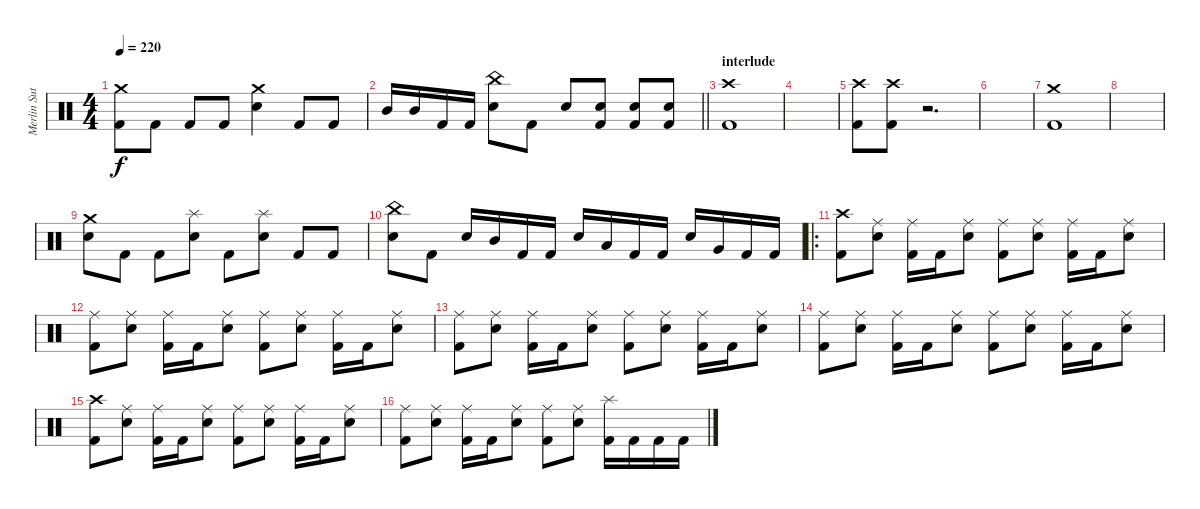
\track ("Merlin Sutter" "Merlin Sut") {instrument percussion}
\staff {score}
\articulation defaults
\ts (4 4)
\tempo 220
\clef neutral
\ks c
("Crash medium (hit)" "Kick (hit) 2").8{dy f} "Kick (hit) 2".8 "Kick (hit) 2".8 "Kick (hit) 2".8 ("Crash medium (hit)" "Snare (hit) 2").4 "Kick (hit) 2".8 "Kick (hit) 2".8 |
\barLineRight lightlight "Mid Tom (hit)".16 "Mid Tom (hit)".16 "Kick (hit) 2".16 "Kick (hit) 2".16
("China (hit)" "Snare (hit) 2").8 "Kick (hit) 2".8 "Snare (hit) 2".8 ("Snare (hit) 2" "Kick (hit) 2").8 ("Snare (hit) 2" "Kick (hit) 2").8 ("Snare (hit) 2" "Kick (hit) 2").8 |
\section ("" "interlude")
("Crash high (hit)" "Kick (hit) 2").1 |
|
("Crash high (hit)" "Kick (hit) 2").8 ("Crash high (hit)" "Kick (hit) 2").8 r.2{d} |
|
("Crash medium (hit)" "Kick (hit) 2").1 |
|
("Crash medium (hit)" "Snare (hit) 2").8 "Kick (hit) 2".8 "Kick (hit) 2".8 ("Splash (hit)" "Snare (hit) 2").8 "Kick (hit) 2".8 ("Splash (hit)" "Snare (hit) 2").8 "Kick (hit) 2".8 "Kick (hit) 2".8 |
("China (hit)" "Snare (hit) 2").8 "Kick (hit) 2".8 "Snare (hit) 2".16 "Mid Tom (hit)".16 "Kick (hit) 2".16 "Kick (hit) 2".16 "Snare (hit) 2".16 "Low Tom (hit)".16 "Kick (hit) 2".16 "Kick (hit) 2".16 "Snare (hit) 2".16 "Very Low Tom (hit)".16 "Kick (hit) 2".16 "Kick (hit) 2".16 |
\ro
("Crash high (hit)" "Kick (hit) 2").8 ("Ride (middle)" "Snare (hit) 2").8 ("Ride (middle)" "Kick (hit) 2").16 "Kick (hit) 2".16 ("Ride (middle)" "Snare (hit) 2").8 ("Ride (middle)" "Kick (hit) 2").8 ("Ride (middle)" "Snare (hit) 2").8 ("Ride (middle)" "Kick (hit) 2").16 "Kick (hit) 2".16 ("Ride (middle)" "Snare (hit) 2").8 |
("Ride (middle)" "Kick (hit) 2").8 ("Ride (middle)" "Snare (hit) 2").8 ("Ride (middle)" "Kick (hit) 2").16 "Kick (hit) 2".16 ("Ride (middle)" "Snare (hit) 2").8 ("Ride (middle)" "Kick (hit) 2").8 ("Ride (middle)" "Snare (hit) 2").8 ("Ride (middle)" "Kick (hit) 2").16 "Kick (hit) 2".16 ("Ride (middle)" "Snare (hit) 2").8 |
("Ride (middle)" "Kick (hit) 2").8 ("Ride (middle)" "Snare (hit) 2").8 ("Ride (middle)" "Kick (hit) 2").16 "Kick (hit) 2".16 ("Ride (middle)" "Snare (hit) 2").8 ("Ride (middle)" "Kick (hit) 2").8 ("Ride (middle)" "Snare (hit) 2").8 ("Ride (middle)" "Kick (hit) 2").16 "Kick (hit) 2".16 ("Ride (middle)" "Snare (hit) 2").8 |
("Ride (middle)" "Kick (hit) 2").8 ("Ride (middle)" "Snare (hit) 2").8 ("Ride (middle)" "Kick (hit) 2").16 "Kick (hit) 2".16 ("Ride (middle)" "Snare (hit) 2").8 ("Ride (middle)" "Kick (hit) 2").8 ("Ride (middle)" "Snare (hit) 2").8 ("Ride (middle)" "Kick (hit) 2").16 "Kick (hit) 2".16 ("Ride (middle)" "Snare (hit) 2").8 |
("Crash high (hit)" "Kick (hit) 2").8 ("Ride (middle)" "Snare (hit) 2").8 ("Ride (middle)" "Kick (hit) 2").16 "Kick (hit) 2".16 ("Ride (middle)" "Snare (hit) 2").8 ("Ride (middle)" "Kick (hit) 2").8 ("Ride (middle)" "Snare (hit) 2").8 ("Ride (middle)" "Kick (hit) 2").16 "Kick (hit) 2".16 ("Ride (middle)" "Snare (hit) 2").8 |
("Ride (middle)" "Kick (hit) 2").8 ("Ride (middle)" "Snare (hit) 2").8 ("Ride (middle)" "Kick (hit) 2").16 "Kick (hit) 2".16 ("Ride (middle)" "Snare (hit) 2").8 ("Ride (middle)" "Kick (hit) 2").8 ("Ride (middle)" "Snare (hit) 2").8 ("Splash (hit)" "Kick (hit) 2").16 "Kick (hit) 2".16 "Kick (hit) 2".16 "Kick (hit) 2".16
